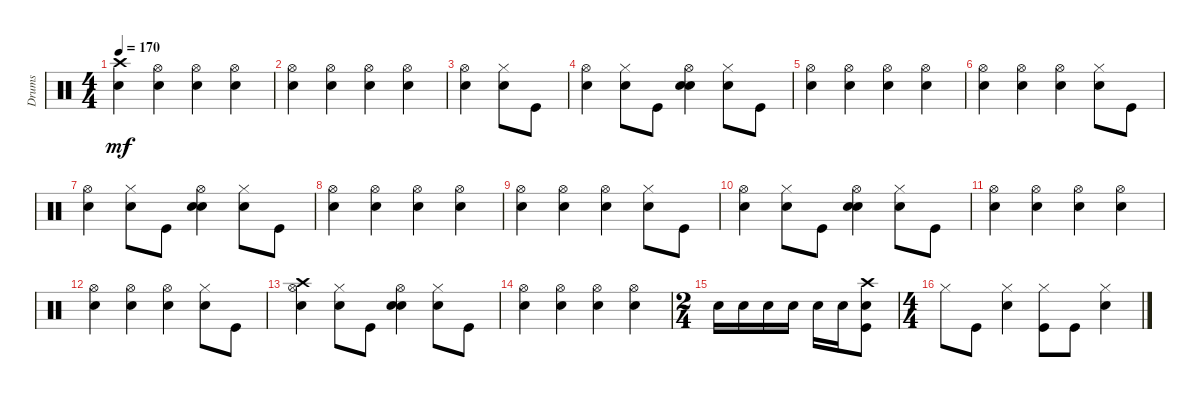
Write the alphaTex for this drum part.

\track ("Drums" "Drums") {instrument percussion}
\staff {score}
\articulation defaults
\ts (4 4)
\tempo 170
\clef neutral
\ks c
("Crash high (hit)" "Electric Snare (hit)").4{dy mf} ("Hi-Hat (open)" "Electric Snare (hit)").4 ("Hi-Hat (open)" "Electric Snare (hit)").4 ("Hi-Hat (open)" "Electric Snare (hit)").4 |
("Hi-Hat (open)" "Electric Snare (hit)").4 ("Hi-Hat (open)" "Electric Snare (hit)").4 ("Hi-Hat (open)" "Electric Snare (hit)").4 ("Hi-Hat (open)" "Electric Snare (hit)").4 |
("Hi-Hat (open)" "Electric Snare (hit)").4 ("Hi-Hat (closed)" "Electric Snare (hit)").8 "Kick (hit)".8 |
("Hi-Hat (open)" "Electric Snare (hit)").4 ("Hi-Hat (closed)" "Electric Snare (hit)").8 "Kick (hit)".8 ("Electric Snare (hit)" "Hi-Hat (open)" "Electric Snare (hit)").4 ("Hi-Hat (closed)" "Electric Snare (hit)").8 "Kick (hit)".8 |
("Hi-Hat (open)" "Electric Snare (hit)").4 ("Hi-Hat (open)" "Electric Snare (hit)").4 ("Hi-Hat (open)" "Electric Snare (hit)").4 ("Hi-Hat (open)" "Electric Snare (hit)").4 |
("Hi-Hat (open)" "Electric Snare (hit)").4 ("Hi-Hat (open)" "Electric Snare (hit)").4 ("Hi-Hat (open)" "Electric Snare (hit)").4 ("Hi-Hat (closed)" "Electric Snare (hit)").8 "Kick (hit)".8 |
("Hi-Hat (open)" "Electric Snare (hit)").4 ("Hi-Hat (closed)" "Electric Snare (hit)").8 "Kick (hit)".8 ("Electric Snare (hit)" "Hi-Hat (open)" "Electric Snare (hit)").4 ("Hi-Hat (closed)" "Electric Snare (hit)").8 "Kick (hit)".8 |
("Hi-Hat (open)" "Electric Snare (hit)").4 ("Hi-Hat (open)" "Electric Snare (hit)").4 ("Hi-Hat (open)" "Electric Snare (hit)").4 ("Hi-Hat (open)" "Electric Snare (hit)").4 |
("Hi-Hat (open)" "Electric Snare (hit)").4 ("Hi-Hat (open)" "Electric Snare (hit)").4 ("Hi-Hat (open)" "Electric Snare (hit)").4 ("Hi-Hat (closed)" "Electric Snare (hit)").8 "Kick (hit)".8 |
("Hi-Hat (open)" "Electric Snare (hit)").4 ("Hi-Hat (closed)" "Electric Snare (hit)").8 "Kick (hit)".8 ("Electric Snare (hit)" "Hi-Hat (open)" "Electric Snare (hit)").4 ("Hi-Hat (closed)" "Electric Snare (hit)").8 "Kick (hit)".8 |
("Hi-Hat (open)" "Electric Snare (hit)").4 ("Hi-Hat (open)" "Electric Snare (hit)").4 ("Hi-Hat (open)" "Electric Snare (hit)").4 ("Hi-Hat (open)" "Electric Snare (hit)").4 |
("Hi-Hat (open)" "Electric Snare (hit)").4 ("Hi-Hat (open)" "Electric Snare (hit)").4 ("Hi-Hat (open)" "Electric Snare (hit)").4 ("Hi-Hat (closed)" "Electric Snare (hit)").8 "Kick (hit)".8 |
("Crash high (hit)" "Hi-Hat (open)" "Electric Snare (hit)").4 ("Hi-Hat (closed)" "Electric Snare (hit)").8 "Kick (hit)".8 ("Electric Snare (hit)" "Hi-Hat (open)" "Electric Snare (hit)").4 ("Hi-Hat (closed)" "Electric Snare (hit)").8 "Kick (hit)".8 |
("Hi-Hat (open)" "Electric Snare (hit)").4 ("Hi-Hat (open)" "Electric Snare (hit)").4 ("Hi-Hat (open)" "Electric Snare (hit)").4 ("Hi-Hat (open)" "Electric Snare (hit)").4 |
\ts (2 4)
"Electric Snare (hit)".16 "Electric Snare (hit)".16 "Electric Snare (hit)".16 "Electric Snare (hit)".16 "Electric Snare (hit)".16 "Electric Snare (hit)".16 ("Crash high (hit)" "Electric Snare (hit)" "Kick (hit)").8 |
\ts (4 4)
"Hi-Hat (closed)".8 "Kick (hit)".8 ("Hi-Hat (closed)" "Electric Snare (hit)").4 ("Hi-Hat (closed)" "Kick (hit)").8 "Kick (hit)".8 ("Hi-Hat (closed)" "Electric Snare (hit)").4
